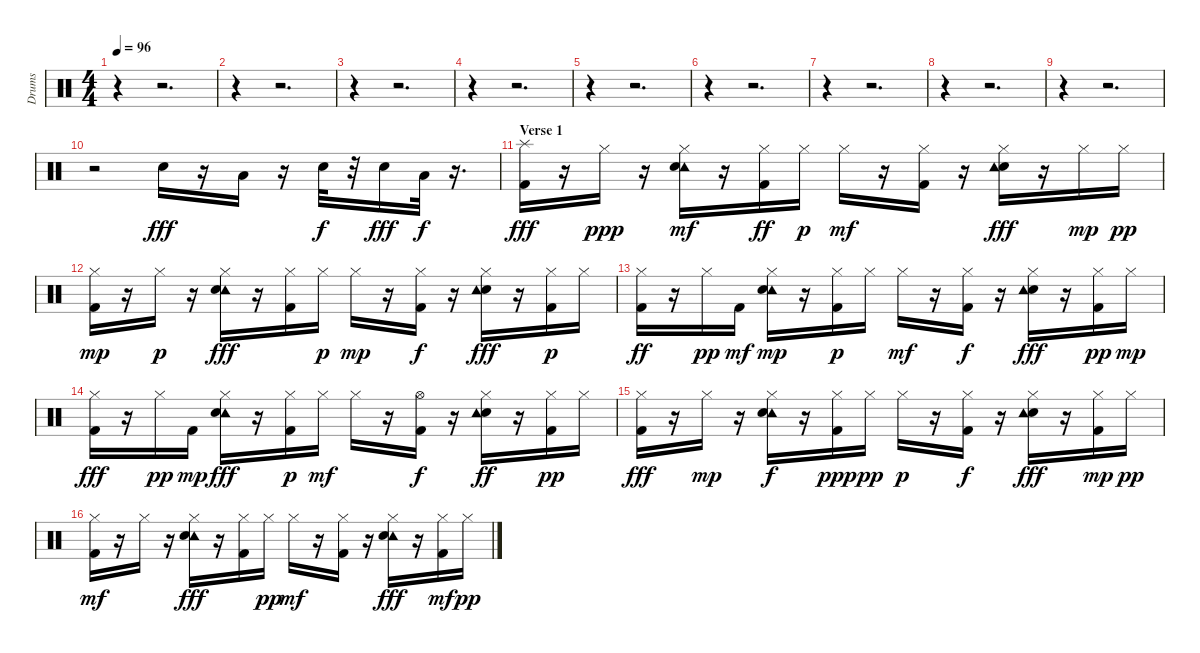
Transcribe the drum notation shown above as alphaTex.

\track ("Drums" "Drums") {instrument percussion}
\staff {score}
\articulation defaults
\ts (4 4)
\tempo 96
\clef neutral
\ks c
r.4{dy mp} r.2{d} |
r.4 r.2{d} |
r.4 r.2{d} |
r.4 r.2{d} |
r.4 r.2{d} |
r.4 r.2{d} |
r.4 r.2{d} |
r.4 r.2{d} |
r.4 r.2{d} |
r.2 "Snare (hit) 2".16{dy fff} r.16 "Low Tom (hit)".16 r.16 "Snare (hit) 2".32{dy f} r.32 "Snare (hit) 2".16{dy fff} "Low Tom (hit)".32{dy f} r.16{d} |
\section ("" "Verse 1")
("Kick (hit) 2" "Splash (hit)").16{dy fff} r.16 "Hi-Hat (closed)".16{dy ppp} r.16 ("Hi-Hat (closed)" "Tambourine (hit)" "Snare (hit) 2").16{dy mf} r.16 ("Kick (hit) 2" "Hi-Hat (closed)").16{dy ff} "Hi-Hat (closed)".16{dy p} "Hi-Hat (closed)".16{dy mf} r.16 ("Kick (hit) 2" "Hi-Hat (closed)").16 r.16 ("Snare (hit) 2" "Tambourine (hit)" "Hi-Hat (closed)").16{dy fff} r.16 "Hi-Hat (closed)".16{dy mp} "Hi-Hat (closed)".16{dy pp} |
("Hi-Hat (closed)" "Kick (hit) 2").16{dy mp} r.16 "Hi-Hat (closed)".16{dy p} r.16 ("Tambourine (hit)" "Snare (hit) 2" "Hi-Hat (closed)").16{dy fff} r.16 ("Kick (hit) 2" "Hi-Hat (closed)").16 "Hi-Hat (closed)".16{dy p} "Hi-Hat (closed)".16{dy mp} r.16 ("Kick (hit) 2" "Hi-Hat (closed)").16{dy f} r.16 ("Snare (hit) 2" "Tambourine (hit)" "Hi-Hat (closed)").16{dy fff} r.16 ("Hi-Hat (closed)" "Kick (hit) 2").16{dy p} "Hi-Hat (closed)".16 |
("Hi-Hat (closed)" "Kick (hit) 2").16{dy ff} r.16 "Hi-Hat (closed)".16{dy pp} "Kick (hit) 2".16{dy mf} ("Hi-Hat (closed)" "Tambourine (hit)" "Snare (hit) 2").16{dy mp} r.16 ("Hi-Hat (closed)" "Kick (hit) 2").16{dy p} "Hi-Hat (closed)".16 "Hi-Hat (closed)".16{dy mf} r.16 ("Kick (hit) 2" "Hi-Hat (closed)").16{dy f} r.16 ("Snare (hit) 2" "Tambourine (hit)" "Hi-Hat (closed)").16{dy fff} r.16 ("Kick (hit) 2" "Hi-Hat (closed)").16{dy pp} "Hi-Hat (closed)".16{dy mp} |
("Kick (hit) 2" "Hi-Hat (closed)").16{dy fff} r.16 "Hi-Hat (closed)".16{dy pp} "Kick (hit) 2".16{dy mp} ("Tambourine (hit)" "Snare (hit) 2" "Hi-Hat (closed)").16{dy fff} r.16 ("Hi-Hat (closed)" "Kick (hit) 2").16{dy p} "Hi-Hat (closed)".16{dy mf} "Hi-Hat (closed)".16 r.16 ("Kick (hit) 2" "Hi-Hat (open)").16{dy f} r.16 ("Snare (hit) 2" "Tambourine (hit)" "Hi-Hat (closed)").16{dy ff} r.16 ("Kick (hit) 2" "Hi-Hat (closed)").16{dy pp} "Hi-Hat (closed)".16 |
("Kick (hit) 2" "Hi-Hat (closed)").16{dy fff} r.16 "Hi-Hat (closed)".16{dy mp} r.16 ("Hi-Hat (closed)" "Tambourine (hit)" "Snare (hit) 2").16{dy f} r.16 ("Hi-Hat (closed)" "Kick (hit) 2").16{dy ppp} "Hi-Hat (closed)".16{dy pp} "Hi-Hat (closed)".16{dy p} r.16 ("Kick (hit) 2" "Hi-Hat (closed)").16{dy f} r.16 ("Snare (hit) 2" "Tambourine (hit)" "Hi-Hat (closed)").16{dy fff} r.16 ("Kick (hit) 2" "Hi-Hat (closed)").16{dy mp} "Hi-Hat (closed)".16{dy pp} |
("Hi-Hat (closed)" "Kick (hit) 2").16{dy mf} r.16 "Hi-Hat (closed)".16 r.16 ("Tambourine (hit)" "Snare (hit) 2" "Hi-Hat (closed)").16{dy fff} r.16 ("Kick (hit) 2" "Hi-Hat (closed)").16 "Hi-Hat (closed)".16{dy pp} "Hi-Hat (closed)".16{dy mf} r.16 ("Kick (hit) 2" "Hi-Hat (closed)").16 r.16 ("Tambourine (hit)" "Snare (hit) 2" "Hi-Hat (closed)").16{dy fff} r.16 ("Hi-Hat (closed)" "Kick (hit) 2").16{dy mf} "Hi-Hat (closed)".16{dy pp}
